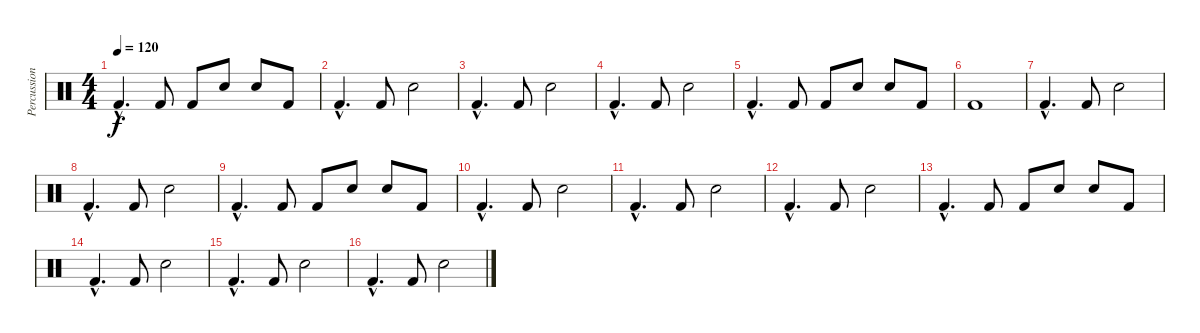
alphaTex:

\track ("Percussioni" "Percussion") {instrument percussion}
\staff {score}
\articulation defaults
\ts (4 4)
\tempo 120
\clef neutral
\ks c "Kick (hit) 2"{hac}.4{d dy f} "Kick (hit) 2".8 "Kick (hit) 2".8 "Snare (hit) 2".8 "Snare (hit) 2".8 "Kick (hit) 2".8
|
"Kick (hit) 2"{hac}.4{d} "Kick (hit) 2".8 "Snare (hit) 2".2 |
"Kick (hit) 2"{hac}.4{d} "Kick (hit) 2".8 "Snare (hit) 2".2 |
"Kick (hit) 2"{hac}.4{d} "Kick (hit) 2".8 "Snare (hit) 2".2 |
"Kick (hit) 2"{hac}.4{d} "Kick (hit) 2".8 "Kick (hit) 2".8 "Snare (hit) 2".8 "Snare (hit) 2".8 "Kick (hit) 2".8 |
"Kick (hit) 2".1 |
"Kick (hit) 2"{hac}.4{d} "Kick (hit) 2".8 "Snare (hit) 2".2 |
"Kick (hit) 2"{hac}.4{d} "Kick (hit) 2".8 "Snare (hit) 2".2 |
"Kick (hit) 2"{hac}.4{d} "Kick (hit) 2".8 "Kick (hit) 2".8 "Snare (hit) 2".8 "Snare (hit) 2".8 "Kick (hit) 2".8 |
"Kick (hit) 2"{hac}.4{d} "Kick (hit) 2".8 "Snare (hit) 2".2 |
"Kick (hit) 2"{hac}.4{d} "Kick (hit) 2".8 "Snare (hit) 2".2 |
"Kick (hit) 2"{hac}.4{d} "Kick (hit) 2".8 "Snare (hit) 2".2 |
"Kick (hit) 2"{hac}.4{d} "Kick (hit) 2".8 "Kick (hit) 2".8 "Snare (hit) 2".8 "Snare (hit) 2".8 "Kick (hit) 2".8 |
"Kick (hit) 2"{hac}.4{d} "Kick (hit) 2".8 "Snare (hit) 2".2 |
"Kick (hit) 2"{hac}.4{d} "Kick (hit) 2".8 "Snare (hit) 2".2 |
"Kick (hit) 2"{hac}.4{d} "Kick (hit) 2".8 "Snare (hit) 2".2
